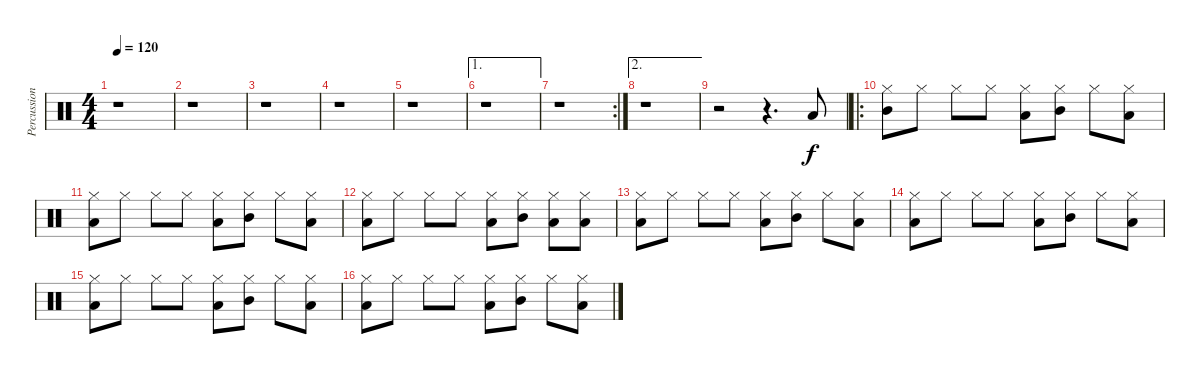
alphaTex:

\track ("Percussions" "Percussion") {instrument percussion}
\staff {score}
\articulation defaults
\ts (4 4)
\tempo 120
\clef neutral
\ks c
r.1{dy f} |
r.1 |
r.1 |
r.1 |
r.1 |
\ae 1
r.1 |
\rc 2
r.1 |
\ae 2
r.1 |
r.2 r.4{d} "Low Tom (hit)".8 |
\ro
("Hi-Hat (closed)" "Mid Tom (hit)").8 "Hi-Hat (closed)".8 "Hi-Hat (closed)".8 "Hi-Hat (closed)".8 ("Hi-Hat (closed)" "Low Tom (hit)").8 ("Hi-Hat (closed)" "Mid Tom (hit)").8 "Hi-Hat (closed)".8 ("Hi-Hat (closed)" "Low Tom (hit)").8 |
("Hi-Hat (closed)" "Low Tom (hit)").8 "Hi-Hat (closed)".8 "Hi-Hat (closed)".8 "Hi-Hat (closed)".8 ("Hi-Hat (closed)" "Low Tom (hit)").8 ("Hi-Hat (closed)" "Mid Tom (hit)").8 "Hi-Hat (closed)".8 ("Hi-Hat (closed)" "Low Tom (hit)").8 |
("Hi-Hat (closed)" "Low Tom (hit)").8 "Hi-Hat (closed)".8 "Hi-Hat (closed)".8 "Hi-Hat (closed)".8 ("Hi-Hat (closed)" "Low Tom (hit)").8 ("Hi-Hat (closed)" "Mid Tom (hit)").8 ("Hi-Hat (closed)" "Low Tom (hit)").8 ("Hi-Hat (closed)" "Low Tom (hit)").8 |
("Hi-Hat (closed)" "Low Tom (hit)").8 "Hi-Hat (closed)".8 "Hi-Hat (closed)".8 "Hi-Hat (closed)".8 ("Hi-Hat (closed)" "Low Tom (hit)").8 ("Hi-Hat (closed)" "Mid Tom (hit)").8 "Hi-Hat (closed)".8 ("Hi-Hat (closed)" "Low Tom (hit)").8 |
("Hi-Hat (closed)" "Low Tom (hit)").8 "Hi-Hat (closed)".8 "Hi-Hat (closed)".8 "Hi-Hat (closed)".8 ("Hi-Hat (closed)" "Low Tom (hit)").8 ("Hi-Hat (closed)" "Mid Tom (hit)").8 "Hi-Hat (closed)".8 ("Hi-Hat (closed)" "Low Tom (hit)").8 |
("Hi-Hat (closed)" "Low Tom (hit)").8 "Hi-Hat (closed)".8 "Hi-Hat (closed)".8 "Hi-Hat (closed)".8 ("Hi-Hat (closed)" "Low Tom (hit)").8 ("Hi-Hat (closed)" "Mid Tom (hit)").8 "Hi-Hat (closed)".8 ("Hi-Hat (closed)" "Low Tom (hit)").8 |
("Hi-Hat (closed)" "Low Tom (hit)").8 "Hi-Hat (closed)".8 "Hi-Hat (closed)".8 "Hi-Hat (closed)".8 ("Hi-Hat (closed)" "Low Tom (hit)").8 ("Hi-Hat (closed)" "Mid Tom (hit)").8 "Hi-Hat (closed)".8 ("Hi-Hat (closed)" "Low Tom (hit)").8
